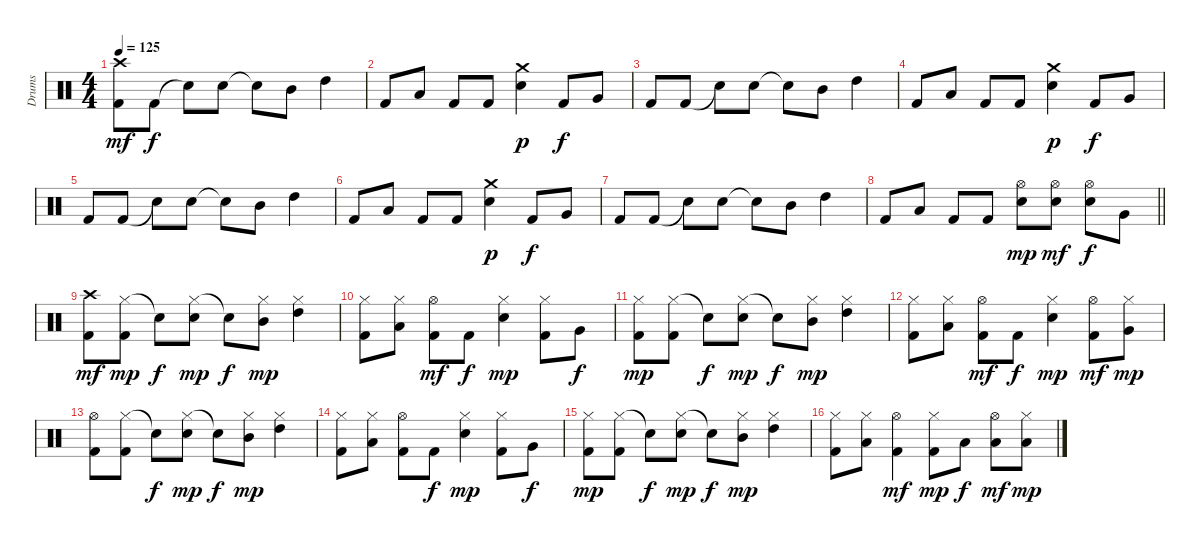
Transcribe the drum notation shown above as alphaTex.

\track ("Drums" "Drums") {instrument percussion}
\staff {score}
\articulation defaults
\ts (4 4)
\tempo 125
\clef neutral
\ks c
("Crash high (hit)" "Kick (hit) 2").8{dy mf} "Kick (hit) 2".8{dy f} "Snare (hit)"{t}.8 "Snare (hit) 2".8 "Snare (hit)"{t}.8 "Mid Tom (hit)".8 "High Tom (hit)".4 |
"Kick (hit) 2".8 "Low Tom (hit)".8 "Kick (hit) 2".8 "Kick (hit) 2".8 ("Crash medium (hit)" "Snare (hit) 2").4{dy p} "Kick (hit) 2".8{dy f} "Very Low Tom (hit)".8 |
"Kick (hit) 2".8 "Kick (hit) 2".8 "Snare (hit)"{t}.8 "Snare (hit) 2".8 "Snare (hit)"{t}.8 "Mid Tom (hit)".8 "High Tom (hit)".4 |
"Kick (hit) 2".8 "Low Tom (hit)".8 "Kick (hit) 2".8 "Kick (hit) 2".8 ("Crash medium (hit)" "Snare (hit) 2").4{dy p} "Kick (hit) 2".8{dy f} "Very Low Tom (hit)".8 |
"Kick (hit) 2".8 "Kick (hit) 2".8 "Snare (hit)"{t}.8 "Snare (hit) 2".8 "Snare (hit)"{t}.8 "Mid Tom (hit)".8 "High Tom (hit)".4 |
"Kick (hit) 2".8 "Low Tom (hit)".8 "Kick (hit) 2".8 "Kick (hit) 2".8 ("Crash medium (hit)" "Snare (hit) 2").4{dy p} "Kick (hit) 2".8{dy f} "Very Low Tom (hit)".8 |
"Kick (hit) 2".8 "Kick (hit) 2".8 "Snare (hit)"{t}.8 "Snare (hit) 2".8 "Snare (hit)"{t}.8 "Mid Tom (hit)".8 "High Tom (hit)".4 |
\barLineRight lightlight "Kick (hit) 2".8 "Low Tom (hit)".8 "Kick (hit) 2".8 "Kick (hit) 2".8
("Hi-Hat (open)" "Snare (hit) 2").8{dy mp} ("Hi-Hat (open)" "Snare (hit) 2").8{dy mf} ("Hi-Hat (open)" "Snare (hit) 2").8{dy f} "Very Low Tom (hit)".8 |
\section ("" "")
("Crash high (hit)" "Kick (hit) 2").8{dy mf} ("Hi-Hat (closed)" "Kick (hit) 2").8{dy mp} "Snare (hit)"{t}.8{dy f} ("Hi-Hat (closed)" "Snare (hit) 2").8{dy mp} "Snare (hit)"{t}.8{dy f} ("Hi-Hat (closed)" "Mid Tom (hit)").8{dy mp} ("Hi-Hat (closed)" "High Tom (hit)").4 |
("Hi-Hat (closed)" "Kick (hit) 2").8 ("Hi-Hat (closed)" "Low Tom (hit)").8 ("Hi-Hat (open)" "Kick (hit) 2").8{dy mf} "Kick (hit) 2".8{dy f} ("Hi-Hat (closed)" "Snare (hit) 2").4{dy mp} ("Hi-Hat (closed)" "Kick (hit) 2").8 "Very Low Tom (hit)".8{dy f} |
("Hi-Hat (closed)" "Kick (hit) 2").8{dy mp} ("Hi-Hat (closed)" "Kick (hit) 2").8 "Snare (hit)"{t}.8{dy f} ("Hi-Hat (closed)" "Snare (hit) 2").8{dy mp} "Snare (hit)"{t}.8{dy f} ("Hi-Hat (closed)" "Mid Tom (hit)").8{dy mp} ("Hi-Hat (closed)" "High Tom (hit)").4 |
("Hi-Hat (closed)" "Kick (hit) 2").8 ("Hi-Hat (closed)" "Low Tom (hit)").8 ("Hi-Hat (open)" "Kick (hit) 2").8{dy mf} "Kick (hit) 2".8{dy f} ("Hi-Hat (closed)" "Snare (hit) 2").4{dy mp} ("Hi-Hat (open)" "Kick (hit) 2").8{dy mf} ("Hi-Hat (closed)" "Very Low Tom (hit)").8{dy mp} |
("Hi-Hat (open)" "Kick (hit) 2").8 ("Hi-Hat (closed)" "Kick (hit) 2").8 "Snare (hit)"{t}.8{dy f} ("Hi-Hat (closed)" "Snare (hit) 2").8{dy mp} "Snare (hit)"{t}.8{dy f} ("Hi-Hat (closed)" "Mid Tom (hit)").8{dy mp} ("Hi-Hat (closed)" "High Tom (hit)").4 |
("Hi-Hat (closed)" "Kick (hit) 2").8 ("Hi-Hat (closed)" "Low Tom (hit)").8 ("Hi-Hat (open)" "Kick (hit) 2").8 "Kick (hit) 2".8{dy f} ("Hi-Hat (closed)" "Snare (hit) 2").4{dy mp} ("Hi-Hat (closed)" "Kick (hit) 2").8 "Very Low Tom (hit)".8{dy f} |
("Hi-Hat (closed)" "Kick (hit) 2").8{dy mp} ("Hi-Hat (closed)" "Kick (hit) 2").8 "Snare (hit)"{t}.8{dy f} ("Hi-Hat (closed)" "Snare (hit) 2").8{dy mp} "Snare (hit)"{t}.8{dy f} ("Hi-Hat (closed)" "Mid Tom (hit)").8{dy mp} ("Hi-Hat (closed)" "High Tom (hit)").4 |
("Hi-Hat (closed)" "Kick (hit) 2").8 ("Hi-Hat (closed)" "Low Tom (hit)").8 ("Hi-Hat (open)" "Kick (hit) 2").4{dy mf} ("Hi-Hat (closed)" "Kick (hit) 2").8{dy mp} "Low Tom (hit)".8{dy f} ("Hi-Hat (open)" "Low Tom (hit)").8{dy mf} ("Hi-Hat (closed)" "Low Tom (hit)").8{dy mp}
